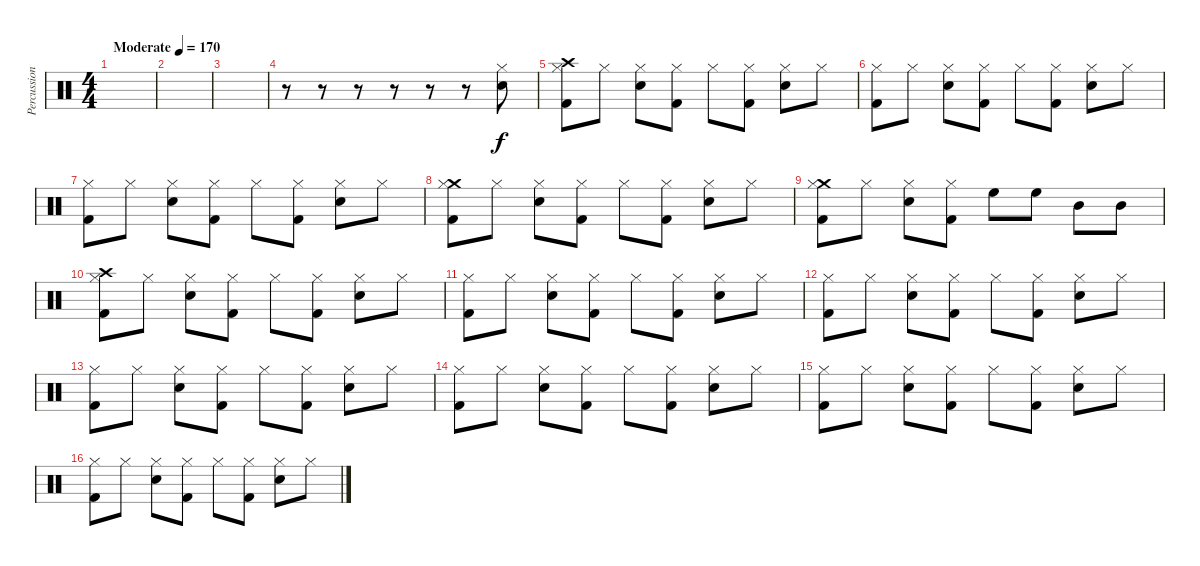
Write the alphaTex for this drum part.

\track ("Percussion" "Percussion") {instrument percussion}
\staff {score}
\articulation defaults
\ts (4 4)
\tempo (170 "Moderate")
\clef neutral
\ks c
|
|
|
r.8 r.8 r.8 r.8 r.8 r.8 ("Snare (hit) 2" "Hi-Hat (closed)").8 |
("Crash high (hit)" "Kick (hit) 2" "Hi-Hat (closed)").8 "Hi-Hat (closed)".8 ("Snare (hit) 2" "Hi-Hat (closed)").8 ("Kick (hit) 2" "Hi-Hat (closed)").8 "Hi-Hat (closed)".8 ("Kick (hit) 2" "Hi-Hat (closed)").8 ("Snare (hit) 2" "Hi-Hat (closed)").8 "Hi-Hat (closed)".8 |
("Kick (hit) 2" "Hi-Hat (closed)").8 "Hi-Hat (closed)".8 ("Snare (hit) 2" "Hi-Hat (closed)").8 ("Kick (hit) 2" "Hi-Hat (closed)").8 "Hi-Hat (closed)".8 ("Kick (hit) 2" "Hi-Hat (closed)").8 ("Snare (hit) 2" "Hi-Hat (closed)").8 "Hi-Hat (closed)".8 |
("Kick (hit) 2" "Hi-Hat (closed)").8 "Hi-Hat (closed)".8 ("Snare (hit) 2" "Hi-Hat (closed)").8 ("Kick (hit) 2" "Hi-Hat (closed)").8 "Hi-Hat (closed)".8 ("Kick (hit) 2" "Hi-Hat (closed)").8 ("Snare (hit) 2" "Hi-Hat (closed)").8 "Hi-Hat (closed)".8 |
("Crash medium (hit)" "Kick (hit) 2" "Hi-Hat (closed)").8 "Hi-Hat (closed)".8 ("Snare (hit) 2" "Hi-Hat (closed)").8 ("Kick (hit) 2" "Hi-Hat (closed)").8 "Hi-Hat (closed)".8 ("Kick (hit) 2" "Hi-Hat (closed)").8 ("Snare (hit) 2" "Hi-Hat (closed)").8 "Hi-Hat (closed)".8 |
("Crash medium (hit)" "Kick (hit) 2" "Hi-Hat (closed)").8 "Hi-Hat (closed)".8 ("Snare (hit) 2" "Hi-Hat (closed)").8 ("Kick (hit) 2" "Hi-Hat (closed)").8 "High Floor Tom (hit)".8 "High Floor Tom (hit)".8 "Mid Tom (hit)".8 "Mid Tom (hit)".8 |
("Crash high (hit)" "Kick (hit) 2" "Hi-Hat (closed)").8 "Hi-Hat (closed)".8 ("Snare (hit) 2" "Hi-Hat (closed)").8 ("Kick (hit) 2" "Hi-Hat (closed)").8 "Hi-Hat (closed)".8 ("Kick (hit) 2" "Hi-Hat (closed)").8 ("Snare (hit) 2" "Hi-Hat (closed)").8 "Hi-Hat (closed)".8 |
("Kick (hit) 2" "Hi-Hat (closed)").8 "Hi-Hat (closed)".8 ("Snare (hit) 2" "Hi-Hat (closed)").8 ("Kick (hit) 2" "Hi-Hat (closed)").8 "Hi-Hat (closed)".8 ("Kick (hit) 2" "Hi-Hat (closed)").8 ("Snare (hit) 2" "Hi-Hat (closed)").8 "Hi-Hat (closed)".8 |
("Kick (hit) 2" "Hi-Hat (closed)").8 "Hi-Hat (closed)".8 ("Snare (hit) 2" "Hi-Hat (closed)").8 ("Kick (hit) 2" "Hi-Hat (closed)").8 "Hi-Hat (closed)".8 ("Kick (hit) 2" "Hi-Hat (closed)").8 ("Snare (hit) 2" "Hi-Hat (closed)").8 "Hi-Hat (closed)".8 |
("Kick (hit) 2" "Hi-Hat (closed)").8 "Hi-Hat (closed)".8 ("Snare (hit) 2" "Hi-Hat (closed)").8 ("Kick (hit) 2" "Hi-Hat (closed)").8 "Hi-Hat (closed)".8 ("Kick (hit) 2" "Hi-Hat (closed)").8 ("Snare (hit) 2" "Hi-Hat (closed)").8 "Hi-Hat (closed)".8 |
("Kick (hit) 2" "Hi-Hat (closed)").8 "Hi-Hat (closed)".8 ("Snare (hit) 2" "Hi-Hat (closed)").8 ("Kick (hit) 2" "Hi-Hat (closed)").8 "Hi-Hat (closed)".8 ("Kick (hit) 2" "Hi-Hat (closed)").8 ("Snare (hit) 2" "Hi-Hat (closed)").8 "Hi-Hat (closed)".8 |
("Kick (hit) 2" "Hi-Hat (closed)").8 "Hi-Hat (closed)".8 ("Snare (hit) 2" "Hi-Hat (closed)").8 ("Kick (hit) 2" "Hi-Hat (closed)").8 "Hi-Hat (closed)".8 ("Kick (hit) 2" "Hi-Hat (closed)").8 ("Snare (hit) 2" "Hi-Hat (closed)").8 "Hi-Hat (closed)".8 |
("Kick (hit) 2" "Hi-Hat (closed)").8 "Hi-Hat (closed)".8 ("Snare (hit) 2" "Hi-Hat (closed)").8 ("Kick (hit) 2" "Hi-Hat (closed)").8 "Hi-Hat (closed)".8 ("Kick (hit) 2" "Hi-Hat (closed)").8 ("Snare (hit) 2" "Hi-Hat (closed)").8 "Hi-Hat (closed)".8
